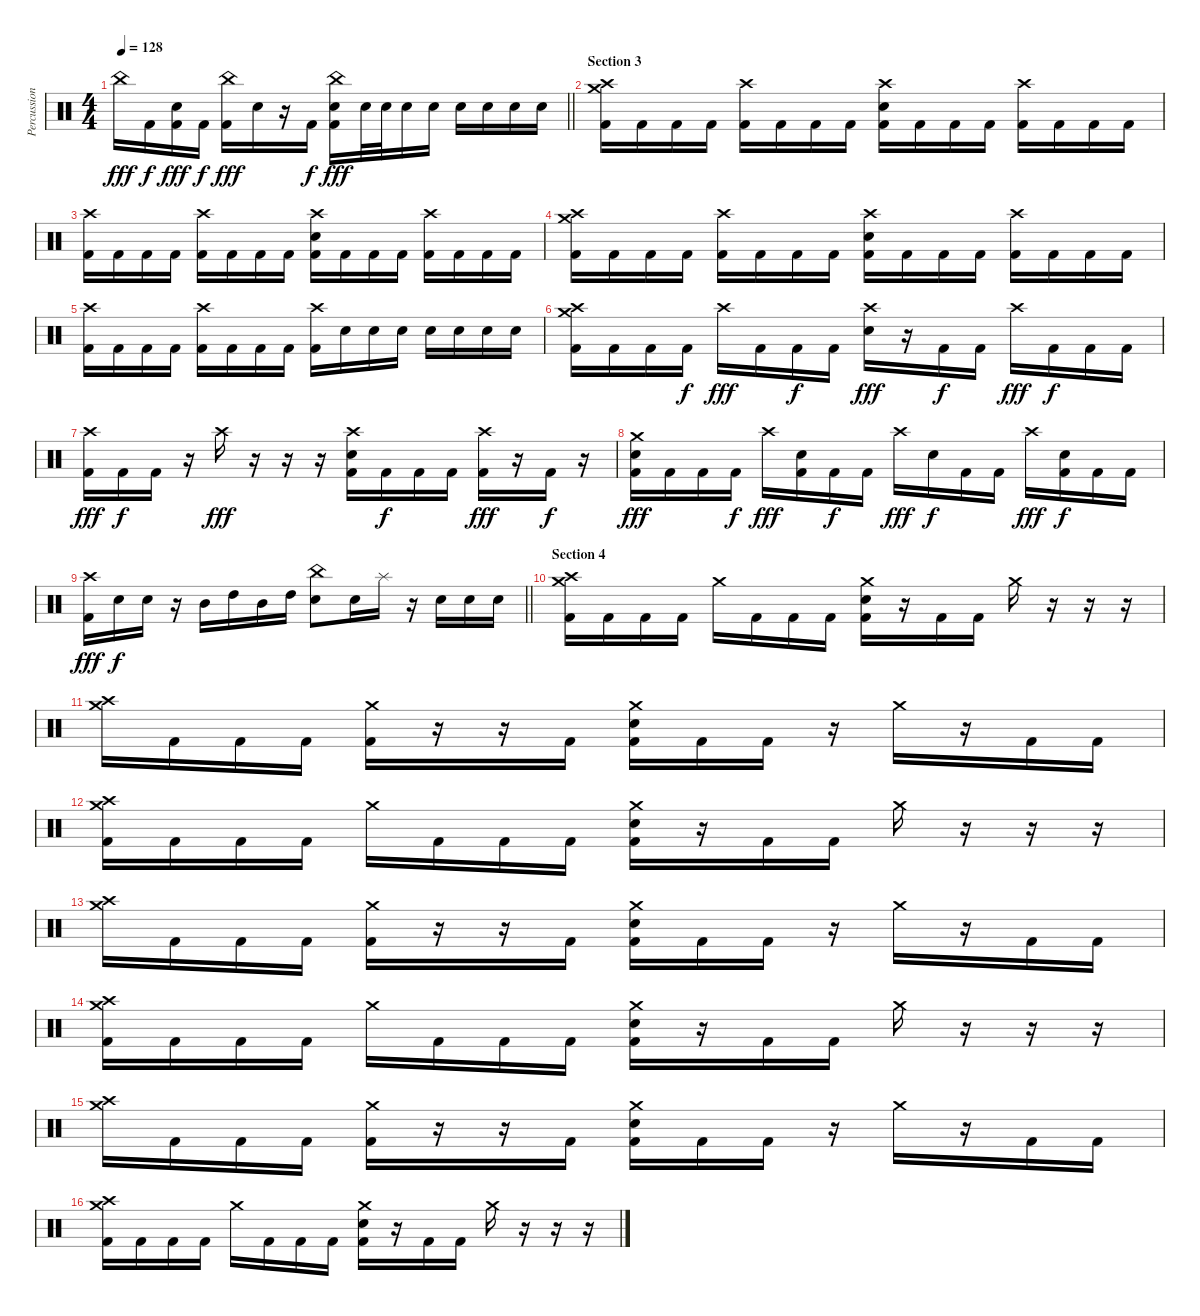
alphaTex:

\track ("Percussion" "Percussion") {instrument percussion}
\staff {score}
\articulation defaults
\ts (4 4)
\tempo 128
\clef neutral
\barLineRight lightlight
\ks c "China (hit)".16{dy fff} "Kick (hit) 2".16{dy f}
("Snare (hit) 2" "Kick (hit) 2").16{dy fff} "Kick (hit) 2".16{dy f} ("China (hit)" "Kick (hit) 2").16{dy fff} "Snare (hit) 2".16 r.16 "Kick (hit) 2".16{dy f} ("China (hit)" "Snare (hit) 2" "Kick (hit) 2").16{dy fff} "Snare (hit) 2".32 "Snare (hit) 2".32 "Snare (hit) 2".16 "Snare (hit) 2".16 "Snare (hit) 2".16 "Snare (hit) 2".16 "Snare (hit) 2".16 "Snare (hit) 2".16 |
\section ("" "Section 3")
("Crash high (hit)" "Crash medium (hit)" "Kick (hit) 2").16 "Kick (hit) 2".16 "Kick (hit) 2".16 "Kick (hit) 2".16 ("Crash high (hit)" "Kick (hit) 2").16 "Kick (hit) 2".16 "Kick (hit) 2".16 "Kick (hit) 2".16 ("Crash high (hit)" "Snare (hit) 2" "Kick (hit) 2").16 "Kick (hit) 2".16 "Kick (hit) 2".16 "Kick (hit) 2".16 ("Crash high (hit)" "Kick (hit) 2").16 "Kick (hit) 2".16 "Kick (hit) 2".16 "Kick (hit) 2".16 |
("Crash high (hit)" "Kick (hit) 2").16 "Kick (hit) 2".16 "Kick (hit) 2".16 "Kick (hit) 2".16 ("Crash high (hit)" "Kick (hit) 2").16 "Kick (hit) 2".16 "Kick (hit) 2".16 "Kick (hit) 2".16 ("Crash high (hit)" "Snare (hit) 2" "Kick (hit) 2").16 "Kick (hit) 2".16 "Kick (hit) 2".16 "Kick (hit) 2".16 ("Crash high (hit)" "Kick (hit) 2").16 "Kick (hit) 2".16 "Kick (hit) 2".16 "Kick (hit) 2".16 |
("Crash high (hit)" "Crash medium (hit)" "Kick (hit) 2").16 "Kick (hit) 2".16 "Kick (hit) 2".16 "Kick (hit) 2".16 ("Crash high (hit)" "Kick (hit) 2").16 "Kick (hit) 2".16 "Kick (hit) 2".16 "Kick (hit) 2".16 ("Crash high (hit)" "Snare (hit) 2" "Kick (hit) 2").16 "Kick (hit) 2".16 "Kick (hit) 2".16 "Kick (hit) 2".16 ("Crash high (hit)" "Kick (hit) 2").16 "Kick (hit) 2".16 "Kick (hit) 2".16 "Kick (hit) 2".16 |
("Crash high (hit)" "Kick (hit) 2").16 "Kick (hit) 2".16 "Kick (hit) 2".16 "Kick (hit) 2".16 ("Crash high (hit)" "Kick (hit) 2").16 "Kick (hit) 2".16 "Kick (hit) 2".16 "Kick (hit) 2".16 ("Crash high (hit)" "Kick (hit) 2").16 "Snare (hit) 2".16 "Snare (hit) 2".16 "Snare (hit) 2".16 "Snare (hit) 2".16 "Snare (hit) 2".16 "Snare (hit) 2".16 "Snare (hit) 2".16 |
("Crash high (hit)" "Crash medium (hit)" "Kick (hit) 2").16 "Kick (hit) 2".16 "Kick (hit) 2".16 "Kick (hit) 2".16{dy f} "Crash high (hit)".16{dy fff} "Kick (hit) 2".16 "Kick (hit) 2".16{dy f} "Kick (hit) 2".16 ("Crash high (hit)" "Snare (hit) 2").16{dy fff} r.16 "Kick (hit) 2".16{dy f} "Kick (hit) 2".16 "Crash high (hit)".16{dy fff} "Kick (hit) 2".16{dy f} "Kick (hit) 2".16 "Kick (hit) 2".16 |
("Crash high (hit)" "Kick (hit) 2").16{dy fff} "Kick (hit) 2".16{dy f} "Kick (hit) 2".16 r.16 "Crash high (hit)".16{dy fff} r.16 r.16 r.16 ("Crash high (hit)" "Snare (hit) 2" "Kick (hit) 2").16 "Kick (hit) 2".16{dy f} "Kick (hit) 2".16 "Kick (hit) 2".16 ("Crash high (hit)" "Kick (hit) 2").16{dy fff} r.16 "Kick (hit) 2".16{dy f} r.16 |
("Crash medium (hit)" "Snare (hit) 2" "Kick (hit) 2").16{dy fff} "Kick (hit) 2".16 "Kick (hit) 2".16 "Kick (hit) 2".16{dy f} "Crash high (hit)".16{dy fff} ("Snare (hit) 2" "Kick (hit) 2").16 "Kick (hit) 2".16{dy f} "Kick (hit) 2".16 "Crash high (hit)".16{dy fff} "Snare (hit) 2".16{dy f} "Kick (hit) 2".16 "Kick (hit) 2".16 "Crash high (hit)".16{dy fff} ("Snare (hit) 2" "Kick (hit) 2").16{dy f} "Kick (hit) 2".16 "Kick (hit) 2".16 |
\barLineRight lightlight
("Crash high (hit)" "Kick (hit) 2").16{dy fff} "Snare (hit) 2".16{dy f} "Snare (hit) 2".16 r.16 "Mid Tom (hit)".16 "High Tom (hit)".16 "Mid Tom (hit)".16 "High Tom (hit)".16 ("China (hit)" "Snare (hit) 2").8 "Snare (hit) 2".16 "Splash (hit)".16 r.16 "Snare (hit) 2".16 "Snare (hit) 2".16 "Snare (hit) 2".16 |
\section ("" "Section 4")
("Crash medium (hit)" "Crash high (hit)" "Kick (hit) 2").16 "Kick (hit) 2".16 "Kick (hit) 2".16 "Kick (hit) 2".16 "Crash medium (hit)".16 "Kick (hit) 2".16 "Kick (hit) 2".16 "Kick (hit) 2".16 ("Crash medium (hit)" "Snare (hit) 2" "Kick (hit) 2").16 r.16 "Kick (hit) 2".16 "Kick (hit) 2".16 "Crash medium (hit)".16 r.16 r.16 r.16 |
("Crash medium (hit)" "Crash high (hit)").16 "Kick (hit) 2".16 "Kick (hit) 2".16 "Kick (hit) 2".16 ("Crash medium (hit)" "Kick (hit) 2").16 r.16 r.16 "Kick (hit) 2".16 ("Crash medium (hit)" "Snare (hit) 2" "Kick (hit) 2").16 "Kick (hit) 2".16 "Kick (hit) 2".16 r.16 "Crash medium (hit)".16 r.16 "Kick (hit) 2".16 "Kick (hit) 2".16 |
("Crash medium (hit)" "Crash high (hit)" "Kick (hit) 2").16 "Kick (hit) 2".16 "Kick (hit) 2".16 "Kick (hit) 2".16 "Crash medium (hit)".16 "Kick (hit) 2".16 "Kick (hit) 2".16 "Kick (hit) 2".16 ("Crash medium (hit)" "Snare (hit) 2" "Kick (hit) 2").16 r.16 "Kick (hit) 2".16 "Kick (hit) 2".16 "Crash medium (hit)".16 r.16 r.16 r.16 |
("Crash medium (hit)" "Crash high (hit)").16 "Kick (hit) 2".16 "Kick (hit) 2".16 "Kick (hit) 2".16 ("Crash medium (hit)" "Kick (hit) 2").16 r.16 r.16 "Kick (hit) 2".16 ("Crash medium (hit)" "Snare (hit) 2" "Kick (hit) 2").16 "Kick (hit) 2".16 "Kick (hit) 2".16 r.16 "Crash medium (hit)".16 r.16 "Kick (hit) 2".16 "Kick (hit) 2".16 |
("Crash medium (hit)" "Crash high (hit)" "Kick (hit) 2").16 "Kick (hit) 2".16 "Kick (hit) 2".16 "Kick (hit) 2".16 "Crash medium (hit)".16 "Kick (hit) 2".16 "Kick (hit) 2".16 "Kick (hit) 2".16 ("Crash medium (hit)" "Snare (hit) 2" "Kick (hit) 2").16 r.16 "Kick (hit) 2".16 "Kick (hit) 2".16 "Crash medium (hit)".16 r.16 r.16 r.16 |
("Crash medium (hit)" "Crash high (hit)").16 "Kick (hit) 2".16 "Kick (hit) 2".16 "Kick (hit) 2".16 ("Crash medium (hit)" "Kick (hit) 2").16 r.16 r.16 "Kick (hit) 2".16 ("Crash medium (hit)" "Snare (hit) 2" "Kick (hit) 2").16 "Kick (hit) 2".16 "Kick (hit) 2".16 r.16 "Crash medium (hit)".16 r.16 "Kick (hit) 2".16 "Kick (hit) 2".16 |
("Crash medium (hit)" "Crash high (hit)" "Kick (hit) 2").16 "Kick (hit) 2".16 "Kick (hit) 2".16 "Kick (hit) 2".16 "Crash medium (hit)".16 "Kick (hit) 2".16 "Kick (hit) 2".16 "Kick (hit) 2".16 ("Crash medium (hit)" "Snare (hit) 2" "Kick (hit) 2").16 r.16 "Kick (hit) 2".16 "Kick (hit) 2".16 "Crash medium (hit)".16 r.16 r.16 r.16
